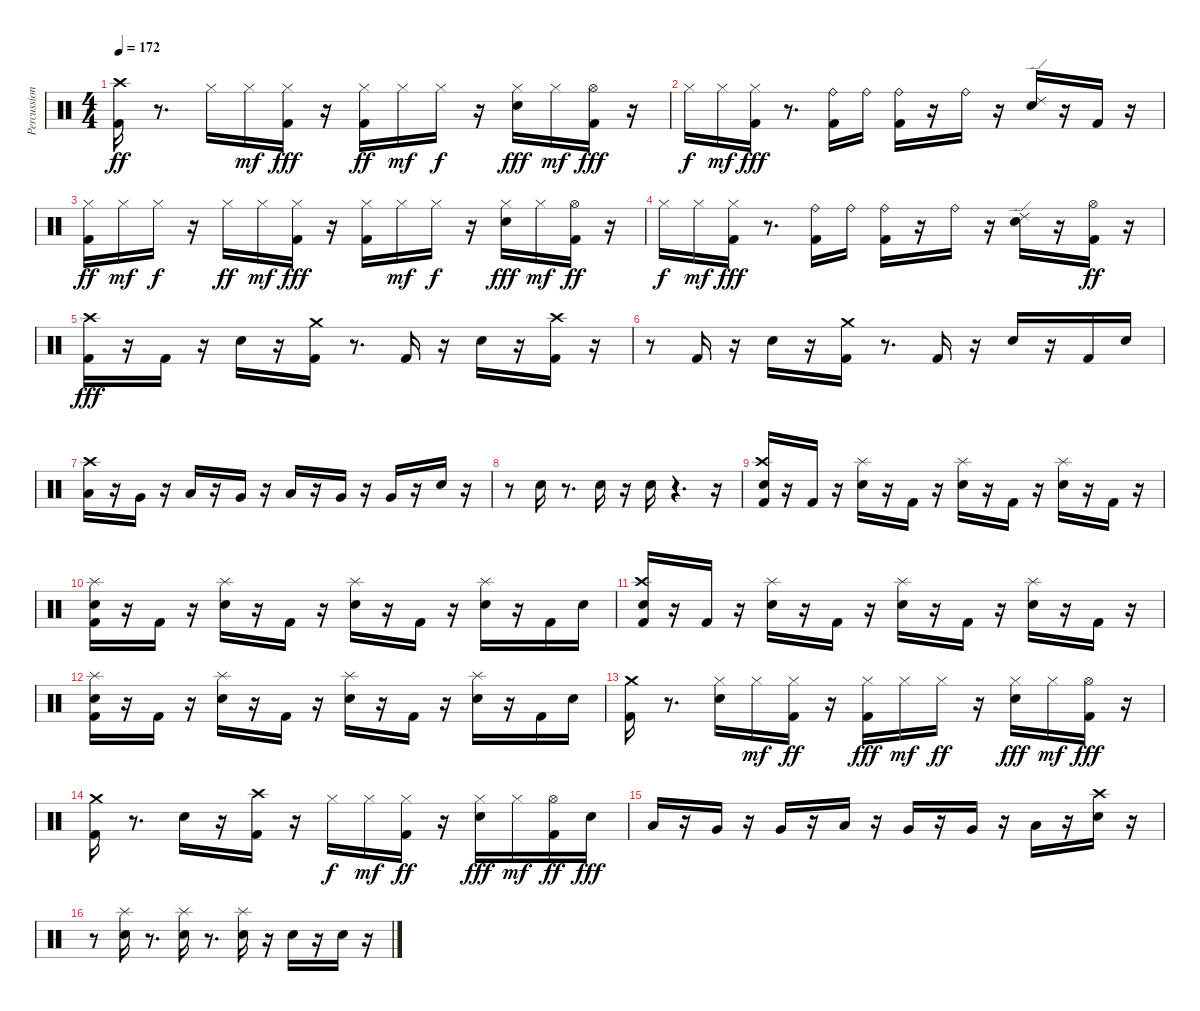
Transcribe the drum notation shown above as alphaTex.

\track ("Percussion" "Percussion") {instrument percussion}
\staff {score}
\articulation defaults
\ts (4 4)
\tempo 172
\clef neutral
\ks c
("Kick (hit) 2" "Crash high (hit)").16{dy ff} r.8{d} "Hi-Hat (closed)".16 "Hi-Hat (closed)".16{dy mf} ("Kick (hit) 2" "Hi-Hat (closed)").16{dy fff} r.16 ("Kick (hit) 2" "Hi-Hat (closed)").16{dy ff} "Hi-Hat (closed)".16{dy mf} "Hi-Hat (closed)".16{dy f} r.16 ("Snare (hit) 2" "Hi-Hat (closed)").16{dy fff} "Hi-Hat (closed)".16{dy mf} ("Hi-Hat (open)" "Kick (hit) 2").16{dy fff} r.16 |
"Hi-Hat (closed)".16{dy f} "Hi-Hat (closed)".16{dy mf} ("Kick (hit) 2" "Hi-Hat (closed)").16{dy fff} r.8{d} ("Ride (bell)" "Kick (hit) 2").16 "Ride (bell)".16 ("Ride (bell)" "Kick (hit) 2").16 r.16 "Ride (bell)".16 r.16 ("Ride (edge) 2" "Snare (hit) 2").16 r.16 "Kick (hit) 2".16 r.16 |
("Kick (hit) 2" "Hi-Hat (closed)").16{dy ff} "Hi-Hat (closed)".16{dy mf} "Hi-Hat (closed)".16{dy f} r.16 "Hi-Hat (closed)".16{dy ff} "Hi-Hat (closed)".16{dy mf} ("Kick (hit) 2" "Hi-Hat (closed)").16{dy fff} r.16 ("Hi-Hat (closed)" "Kick (hit) 2").16 "Hi-Hat (closed)".16{dy mf} "Hi-Hat (closed)".16{dy f} r.16 ("Snare (hit) 2" "Hi-Hat (closed)").16{dy fff} "Hi-Hat (closed)".16{dy mf} ("Kick (hit) 2" "Hi-Hat (open)").16{dy ff} r.16 |
"Hi-Hat (closed)".16{dy f} "Hi-Hat (closed)".16{dy mf} ("Hi-Hat (closed)" "Kick (hit) 2").16{dy fff} r.8{d} ("Ride (bell)" "Kick (hit) 2").16 "Ride (bell)".16 ("Ride (bell)" "Kick (hit) 2").16 r.16 "Ride (bell)".16 r.16 ("Ride (edge) 2" "Snare (hit) 2").16 r.16 ("Kick (hit) 2" "Hi-Hat (open)").16{dy ff} r.16 |
("Crash high (hit)" "Kick (hit) 2").16{dy fff} r.16 "Kick (hit) 2".16 r.16 "Snare (hit) 2".16 r.16 ("Crash medium (hit)" "Kick (hit) 2").16 r.8{d} "Kick (hit) 2".16 r.16 "Snare (hit) 2".16 r.16 ("Crash high (hit)" "Kick (hit) 2").16 r.16 |
r.8 "Kick (hit) 2".16 r.16 "Snare (hit) 2".16 r.16 ("Crash medium (hit)" "Kick (hit) 2").16 r.8{d} "Kick (hit) 2".16 r.16 "Snare (hit) 2".16 r.16 "Kick (hit) 2".16 "Snare (hit) 2".16 |
("Low Tom (hit)" "Crash high (hit)").16 r.16 "Very Low Tom (hit)".16 r.16 "Low Tom (hit)".16 r.16 "Very Low Tom (hit)".16 r.16 "Low Tom (hit)".16 r.16 "Very Low Tom (hit)".16 r.16 "Very Low Tom (hit)".16 r.16 "Snare (hit) 2".16 r.16 |
r.8 "Snare (hit) 2".16 r.8{d} "Snare (hit) 2".16 r.16 "Snare (hit) 2".16 r.4{d} r.16 |
("Crash high (hit)" "Kick (hit) 2" "Snare (hit) 2").16 r.16 "Kick (hit) 2".16 r.16 ("Snare (hit) 2" "Splash (hit)").16 r.16 "Kick (hit) 2".16 r.16 ("Snare (hit) 2" "Splash (hit)").16 r.16 "Kick (hit) 2".16 r.16 ("Splash (hit)" "Snare (hit) 2").16 r.16 "Kick (hit) 2".16 r.16 |
("Snare (hit) 2" "Kick (hit) 2" "Splash (hit)").16 r.16 "Kick (hit) 2".16 r.16 ("Snare (hit) 2" "Splash (hit)").16 r.16 "Kick (hit) 2".16 r.16 ("Snare (hit) 2" "Splash (hit)").16 r.16 "Kick (hit) 2".16 r.16 ("Snare (hit) 2" "Splash (hit)").16 r.16 "Kick (hit) 2".16 "Snare (hit) 2".16 |
("Crash high (hit)" "Kick (hit) 2" "Snare (hit) 2").16 r.16 "Kick (hit) 2".16 r.16 ("Snare (hit) 2" "Splash (hit)").16 r.16 "Kick (hit) 2".16 r.16 ("Snare (hit) 2" "Splash (hit)").16 r.16 "Kick (hit) 2".16 r.16 ("Snare (hit) 2" "Splash (hit)").16 r.16 "Kick (hit) 2".16 r.16 |
("Snare (hit) 2" "Kick (hit) 2" "Splash (hit)").16 r.16 "Kick (hit) 2".16 r.16 ("Splash (hit)" "Snare (hit) 2").16 r.16 "Kick (hit) 2".16 r.16 ("Snare (hit) 2" "Splash (hit)").16 r.16 "Kick (hit) 2".16 r.16 ("Snare (hit) 2" "Splash (hit)").16 r.16 "Kick (hit) 2".16 "Snare (hit) 2".16 |
("Kick (hit) 2" "Crash medium (hit)").16 r.8{d} ("Snare (hit) 2" "Hi-Hat (closed)").16 "Hi-Hat (closed)".16{dy mf} ("Kick (hit) 2" "Hi-Hat (closed)").16{dy ff} r.16 ("Hi-Hat (closed)" "Kick (hit) 2").16{dy fff} "Hi-Hat (closed)".16{dy mf} "Hi-Hat (closed)".16{dy ff} r.16 ("Snare (hit) 2" "Hi-Hat (closed)").16{dy fff} "Hi-Hat (closed)".16{dy mf} ("Hi-Hat (open)" "Kick (hit) 2").16{dy fff} r.16 |
("Kick (hit) 2" "Crash medium (hit)").16 r.8{d} "Snare (hit) 2".16 r.16 ("Kick (hit) 2" "Crash high (hit)").16 r.16 "Hi-Hat (closed)".16{dy f} "Hi-Hat (closed)".16{dy mf} ("Kick (hit) 2" "Hi-Hat (closed)").16{dy ff} r.16 ("Snare (hit) 2" "Hi-Hat (closed)").16{dy fff} "Hi-Hat (closed)".16{dy mf} ("Kick (hit) 2" "Hi-Hat (open)").16{dy ff} "Snare (hit) 2".16{dy fff} |
"Low Tom (hit)".16 r.16 "Very Low Tom (hit)".16 r.16 "Very Low Tom (hit)".16 r.16 "Low Tom (hit)".16 r.16 "Very Low Tom (hit)".16 r.16 "Very Low Tom (hit)".16 r.16 "Low Tom (hit)".16 r.16 ("Crash high (hit)" "Snare (hit) 2").16 r.16 |
r.8 ("Splash (hit)" "Snare (hit) 2").16 r.8{d} ("Splash (hit)" "Snare (hit) 2").16 r.8{d} ("Snare (hit) 2" "Splash (hit)").16 r.16 "Snare (hit) 2".16 r.16 "Snare (hit) 2".16 r.16
